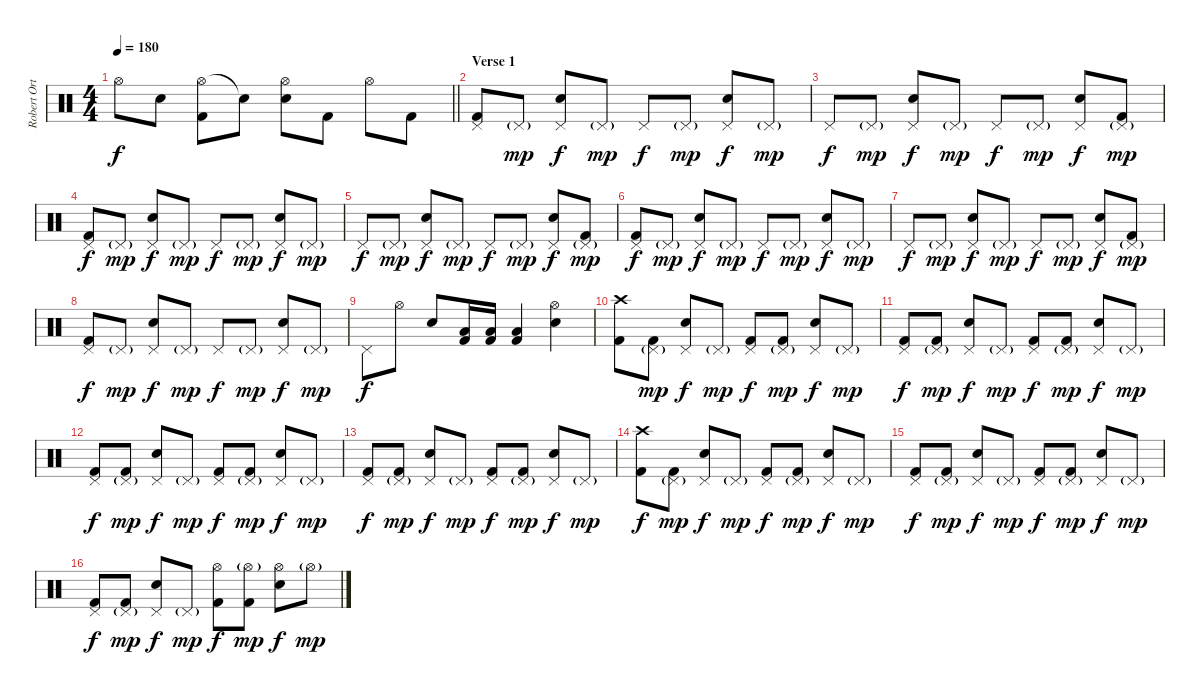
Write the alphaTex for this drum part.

\track ("Robert Ortiz [Drums]" "Robert Ort") {instrument percussion}
\staff {score}
\articulation defaults
\ts (4 4)
\tempo 180
\clef neutral
\barLineRight lightlight
\ks c "Hi-Hat (open)".8{dy f} "Electric Snare (hit)".8
("Hi-Hat (open)" "Kick (hit) 2").8 "Snare (hit)"{t}.8 ("Hi-Hat (open)" "Electric Snare (hit)").8 "Kick (hit) 2".8 "Hi-Hat (open)".8 "Kick (hit) 2".8 |
\section ("" "Verse 1")
("Pedal Hi-Hat (hit)" "Kick (hit) 2").8 "Pedal Hi-Hat (hit)"{g}.8{dy mp} ("Pedal Hi-Hat (hit)" "Electric Snare (hit)").8{dy f} "Pedal Hi-Hat (hit)"{g}.8{dy mp} "Pedal Hi-Hat (hit)".8{dy f} "Pedal Hi-Hat (hit)"{g}.8{dy mp} ("Pedal Hi-Hat (hit)" "Electric Snare (hit)").8{dy f} "Pedal Hi-Hat (hit)"{g}.8{dy mp} |
"Pedal Hi-Hat (hit)".8{dy f} "Pedal Hi-Hat (hit)"{g}.8{dy mp} ("Pedal Hi-Hat (hit)" "Electric Snare (hit)").8{dy f} "Pedal Hi-Hat (hit)"{g}.8{dy mp} "Pedal Hi-Hat (hit)".8{dy f} "Pedal Hi-Hat (hit)"{g}.8{dy mp} ("Pedal Hi-Hat (hit)" "Electric Snare (hit)").8{dy f} ("Pedal Hi-Hat (hit)"{g} "Kick (hit) 2").8{dy mp} |
("Pedal Hi-Hat (hit)" "Kick (hit) 2").8{dy f} "Pedal Hi-Hat (hit)"{g}.8{dy mp} ("Pedal Hi-Hat (hit)" "Electric Snare (hit)").8{dy f} "Pedal Hi-Hat (hit)"{g}.8{dy mp} "Pedal Hi-Hat (hit)".8{dy f} "Pedal Hi-Hat (hit)"{g}.8{dy mp} ("Pedal Hi-Hat (hit)" "Electric Snare (hit)").8{dy f} "Pedal Hi-Hat (hit)"{g}.8{dy mp} |
"Pedal Hi-Hat (hit)".8{dy f} "Pedal Hi-Hat (hit)"{g}.8{dy mp} ("Pedal Hi-Hat (hit)" "Electric Snare (hit)").8{dy f} "Pedal Hi-Hat (hit)"{g}.8{dy mp} "Pedal Hi-Hat (hit)".8{dy f} "Pedal Hi-Hat (hit)"{g}.8{dy mp} ("Pedal Hi-Hat (hit)" "Electric Snare (hit)").8{dy f} ("Pedal Hi-Hat (hit)"{g} "Kick (hit) 2").8{dy mp} |
("Pedal Hi-Hat (hit)" "Kick (hit) 2").8{dy f} "Pedal Hi-Hat (hit)"{g}.8{dy mp} ("Pedal Hi-Hat (hit)" "Electric Snare (hit)").8{dy f} "Pedal Hi-Hat (hit)"{g}.8{dy mp} "Pedal Hi-Hat (hit)".8{dy f} "Pedal Hi-Hat (hit)"{g}.8{dy mp} ("Pedal Hi-Hat (hit)" "Electric Snare (hit)").8{dy f} "Pedal Hi-Hat (hit)"{g}.8{dy mp} |
"Pedal Hi-Hat (hit)".8{dy f} "Pedal Hi-Hat (hit)"{g}.8{dy mp} ("Pedal Hi-Hat (hit)" "Electric Snare (hit)").8{dy f} "Pedal Hi-Hat (hit)"{g}.8{dy mp} "Pedal Hi-Hat (hit)".8{dy f} "Pedal Hi-Hat (hit)"{g}.8{dy mp} ("Pedal Hi-Hat (hit)" "Electric Snare (hit)").8{dy f} ("Pedal Hi-Hat (hit)"{g} "Kick (hit) 2").8{dy mp} |
("Pedal Hi-Hat (hit)" "Kick (hit) 2").8{dy f} "Pedal Hi-Hat (hit)"{g}.8{dy mp} ("Pedal Hi-Hat (hit)" "Electric Snare (hit)").8{dy f} "Pedal Hi-Hat (hit)"{g}.8{dy mp} "Pedal Hi-Hat (hit)".8{dy f} "Pedal Hi-Hat (hit)"{g}.8{dy mp} ("Pedal Hi-Hat (hit)" "Electric Snare (hit)").8{dy f} "Pedal Hi-Hat (hit)"{g}.8{dy mp} |
"Pedal Hi-Hat (hit)".8{dy f} "Hi-Hat (open)".8 "Electric Snare (hit)".8 ("Low Floor Tom (hit)" "Kick (hit) 2").16 ("Low Floor Tom (hit)" "Kick (hit) 2").16 ("Low Floor Tom (hit)" "Kick (hit) 2").4 ("Hi-Hat (open)" "Electric Snare (hit)").4 |
("Crash high (hit)" "Kick (hit) 2").8 ("Pedal Hi-Hat (hit)"{g} "Kick (hit) 2").8{dy mp} ("Pedal Hi-Hat (hit)" "Electric Snare (hit)").8{dy f} "Pedal Hi-Hat (hit)"{g}.8{dy mp} ("Pedal Hi-Hat (hit)" "Kick (hit) 2").8{dy f} ("Pedal Hi-Hat (hit)"{g} "Kick (hit) 2").8{dy mp} ("Pedal Hi-Hat (hit)" "Electric Snare (hit)").8{dy f} "Pedal Hi-Hat (hit)"{g}.8{dy mp} |
("Pedal Hi-Hat (hit)" "Kick (hit) 2").8{dy f} ("Pedal Hi-Hat (hit)"{g} "Kick (hit) 2").8{dy mp} ("Pedal Hi-Hat (hit)" "Electric Snare (hit)").8{dy f} "Pedal Hi-Hat (hit)"{g}.8{dy mp} ("Pedal Hi-Hat (hit)" "Kick (hit) 2").8{dy f} ("Pedal Hi-Hat (hit)"{g} "Kick (hit) 2").8{dy mp} ("Pedal Hi-Hat (hit)" "Electric Snare (hit)").8{dy f} "Pedal Hi-Hat (hit)"{g}.8{dy mp} |
("Pedal Hi-Hat (hit)" "Kick (hit) 2").8{dy f} ("Pedal Hi-Hat (hit)"{g} "Kick (hit) 2").8{dy mp} ("Pedal Hi-Hat (hit)" "Electric Snare (hit)").8{dy f} "Pedal Hi-Hat (hit)"{g}.8{dy mp} ("Pedal Hi-Hat (hit)" "Kick (hit) 2").8{dy f} ("Pedal Hi-Hat (hit)"{g} "Kick (hit) 2").8{dy mp} ("Pedal Hi-Hat (hit)" "Electric Snare (hit)").8{dy f} "Pedal Hi-Hat (hit)"{g}.8{dy mp} |
("Pedal Hi-Hat (hit)" "Kick (hit) 2").8{dy f} ("Pedal Hi-Hat (hit)"{g} "Kick (hit) 2").8{dy mp} ("Pedal Hi-Hat (hit)" "Electric Snare (hit)").8{dy f} "Pedal Hi-Hat (hit)"{g}.8{dy mp} ("Pedal Hi-Hat (hit)" "Kick (hit) 2").8{dy f} ("Pedal Hi-Hat (hit)"{g} "Kick (hit) 2").8{dy mp} ("Pedal Hi-Hat (hit)" "Electric Snare (hit)").8{dy f} "Pedal Hi-Hat (hit)"{g}.8{dy mp} |
("Crash high (hit)" "Kick (hit) 2").8{dy f} ("Pedal Hi-Hat (hit)"{g} "Kick (hit) 2").8{dy mp} ("Pedal Hi-Hat (hit)" "Electric Snare (hit)").8{dy f} "Pedal Hi-Hat (hit)"{g}.8{dy mp} ("Pedal Hi-Hat (hit)" "Kick (hit) 2").8{dy f} ("Pedal Hi-Hat (hit)"{g} "Kick (hit) 2").8{dy mp} ("Pedal Hi-Hat (hit)" "Electric Snare (hit)").8{dy f} "Pedal Hi-Hat (hit)"{g}.8{dy mp} |
("Pedal Hi-Hat (hit)" "Kick (hit) 2").8{dy f} ("Pedal Hi-Hat (hit)"{g} "Kick (hit) 2").8{dy mp} ("Pedal Hi-Hat (hit)" "Electric Snare (hit)").8{dy f} "Pedal Hi-Hat (hit)"{g}.8{dy mp} ("Pedal Hi-Hat (hit)" "Kick (hit) 2").8{dy f} ("Pedal Hi-Hat (hit)"{g} "Kick (hit) 2").8{dy mp} ("Pedal Hi-Hat (hit)" "Electric Snare (hit)").8{dy f} "Pedal Hi-Hat (hit)"{g}.8{dy mp} |
("Pedal Hi-Hat (hit)" "Kick (hit) 2").8{dy f} ("Pedal Hi-Hat (hit)"{g} "Kick (hit) 2").8{dy mp} ("Pedal Hi-Hat (hit)" "Electric Snare (hit)").8{dy f} "Pedal Hi-Hat (hit)"{g}.8{dy mp} ("Hi-Hat (open)" "Kick (hit) 2").8{dy f} ("Hi-Hat (open)"{g} "Kick (hit) 2").8{dy mp} ("Hi-Hat (open)" "Electric Snare (hit)").8{dy f} "Hi-Hat (open)"{g}.8{dy mp}
